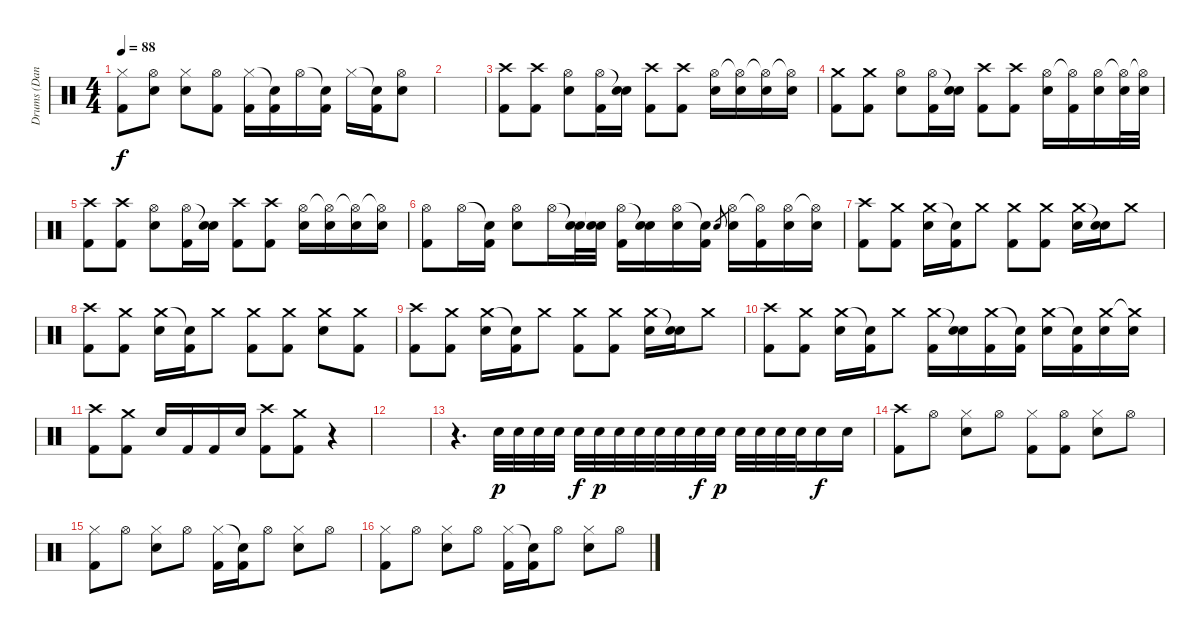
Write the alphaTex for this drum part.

\track ("Drums (Daniel)" "Drums (Dan") {instrument percussion}
\staff {score}
\articulation defaults
\ts (4 4)
\tempo 88
\clef neutral
\ks c
("Hi-Hat (closed)" "Kick (hit) 2").8{dy f} ("Hi-Hat (open)" "Electric Snare (hit)").8 ("Hi-Hat (closed)" "Electric Snare (hit)").8 ("Hi-Hat (open)" "Kick (hit) 2").8 ("Hi-Hat (closed)" "Kick (hit) 2").16 ("Snare (hit)"{t} "Kick (hit) 2").16 "Hi-Hat (open)".16 ("Snare (hit)"{t} "Kick (hit) 2").16 "Hi-Hat (closed)".16 ("Snare (hit)"{t} "Kick (hit) 2").16 ("Hi-Hat (open)" "Electric Snare (hit)").8 |
|
("Crash high (hit)" "Kick (hit) 2").8 ("Crash high (hit)" "Kick (hit) 2").8 ("Hi-Hat (open)" "Electric Snare (hit)").8 ("Hi-Hat (open)" "Kick (hit) 2").16 ("Snare (hit)"{t} "Electric Snare (hit)").16 ("Crash high (hit)" "Kick (hit) 2").8 ("Crash high (hit)" "Kick (hit) 2").8 ("Hi-Hat (open)" "Electric Snare (hit)").16 ("Hi-Hat (open)"{t} "Electric Snare (hit)").16 ("Hi-Hat (open)"{t} "Electric Snare (hit)").16 ("Hi-Hat (open)"{t} "Electric Snare (hit)").16 |
("Crash medium (hit)" "Kick (hit) 2").8 ("Crash medium (hit)" "Kick (hit) 2").8 ("Hi-Hat (open)" "Electric Snare (hit)").8 ("Hi-Hat (open)" "Kick (hit) 2").16 ("Snare (hit)"{t} "Electric Snare (hit)").16 ("Crash high (hit)" "Kick (hit) 2").8 ("Crash high (hit)" "Kick (hit) 2").8 ("Hi-Hat (open)" "Electric Snare (hit)").16 ("Hi-Hat (open)"{t} "Kick (hit) 2").16 ("Hi-Hat (open)" "Electric Snare (hit)").16 ("Hi-Hat (open)"{t} "Electric Snare (hit)").32 ("Hi-Hat (open)"{t} "Electric Snare (hit)").32 |
("Crash high (hit)" "Kick (hit) 2").8 ("Crash high (hit)" "Kick (hit) 2").8 ("Hi-Hat (open)" "Electric Snare (hit)").8 ("Hi-Hat (open)" "Kick (hit) 2").16 ("Snare (hit)"{t} "Electric Snare (hit)").16 ("Crash high (hit)" "Kick (hit) 2").8 ("Crash high (hit)" "Kick (hit) 2").8 ("Hi-Hat (open)" "Electric Snare (hit)").16 ("Hi-Hat (open)"{t} "Electric Snare (hit)").16 ("Hi-Hat (open)"{t} "Electric Snare (hit)").16 ("Hi-Hat (open)"{t} "Electric Snare (hit)").16 |
("Hi-Hat (open)" "Kick (hit) 2").8 "Hi-Hat (open)".16 ("Snare (hit)"{t} "Kick (hit) 2").16 ("Hi-Hat (open)" "Electric Snare (hit)").8 "Hi-Hat (open)".16 ("Snare (hit)"{t} "Electric Snare (hit)").32 ("Snare (hit)"{t} "Electric Snare (hit)").32 ("Hi-Hat (open)" "Kick (hit) 2").16 ("Snare (hit)"{t} "Electric Snare (hit)").16 ("Hi-Hat (open)" "Electric Snare (hit)").16 ("Snare (hit)"{t} "Kick (hit) 2").16 "Electric Snare (hit)".8{gr} ("Hi-Hat (open)" "Electric Snare (hit)").16 ("Hi-Hat (open)"{t} "Kick (hit) 2").16 ("Hi-Hat (open)" "Electric Snare (hit)").16 ("Hi-Hat (open)"{t} "Electric Snare (hit)").16 |
("Crash high (hit)" "Kick (hit) 2").8 ("Crash medium (hit)" "Kick (hit) 2").8 ("Crash medium (hit)" "Electric Snare (hit)").16 ("Snare (hit)"{t} "Kick (hit) 2").16 "Crash medium (hit)".8 ("Crash medium (hit)" "Kick (hit) 2").8 ("Crash medium (hit)" "Kick (hit) 2").8 ("Crash medium (hit)" "Electric Snare (hit)").16 ("Snare (hit)"{t} "Electric Snare (hit)").16 "Crash medium (hit)".8 |
("Crash high (hit)" "Kick (hit) 2").8 ("Crash medium (hit)" "Kick (hit) 2").8 ("Crash medium (hit)" "Electric Snare (hit)").16 ("Snare (hit)"{t} "Kick (hit) 2").16 "Crash medium (hit)".8 ("Crash medium (hit)" "Kick (hit) 2").8 ("Crash medium (hit)" "Kick (hit) 2").8 ("Crash medium (hit)" "Electric Snare (hit)").8 ("Crash medium (hit)" "Kick (hit) 2").8 |
("Crash high (hit)" "Kick (hit) 2").8 ("Crash medium (hit)" "Kick (hit) 2").8 ("Crash medium (hit)" "Electric Snare (hit)").16 ("Snare (hit)"{t} "Kick (hit) 2").16 "Crash medium (hit)".8 ("Crash medium (hit)" "Kick (hit) 2").8 ("Crash medium (hit)" "Kick (hit) 2").8 ("Crash medium (hit)" "Electric Snare (hit)").16 ("Snare (hit)"{t} "Electric Snare (hit)").16 "Crash medium (hit)".8 |
("Crash high (hit)" "Kick (hit) 2").8 ("Crash medium (hit)" "Kick (hit) 2").8 ("Crash medium (hit)" "Electric Snare (hit)").16 ("Snare (hit)"{t} "Kick (hit) 2").16 "Crash medium (hit)".8 ("Crash medium (hit)" "Kick (hit) 2").16 ("Snare (hit)"{t} "Electric Snare (hit)").16 ("Crash medium (hit)" "Kick (hit) 2").16 ("Snare (hit)"{t} "Kick (hit) 2").16 ("Crash medium (hit)" "Electric Snare (hit)").16 ("Snare (hit)"{t} "Kick (hit) 2").16 ("Crash medium (hit)" "Electric Snare (hit)").16 ("Crash medium (hit)"{t} "Electric Snare (hit)").16 |
("Crash high (hit)" "Kick (hit) 2").8 ("Crash medium (hit)" "Kick (hit) 2").8 "Electric Snare (hit)".16 "Kick (hit) 2".16 "Kick (hit) 2".16 "Electric Snare (hit)".16 ("Crash high (hit)" "Kick (hit) 2").8 ("Crash medium (hit)" "Kick (hit) 2").8 r.4 |
|
r.4{d} "Electric Snare (hit)".32{dy p} "Electric Snare (hit)".32 "Electric Snare (hit)".32 "Electric Snare (hit)".32 "Electric Snare (hit)".32{dy f} "Electric Snare (hit)".32{dy p} "Electric Snare (hit)".32 "Electric Snare (hit)".32 "Electric Snare (hit)".32 "Electric Snare (hit)".32 "Electric Snare (hit)".32{dy f} "Electric Snare (hit)".32{dy p} "Electric Snare (hit)".32 "Electric Snare (hit)".32 "Electric Snare (hit)".32 "Electric Snare (hit)".32 "Electric Snare (hit)".16{dy f} "Electric Snare (hit)".16 |
("Crash high (hit)" "Kick (hit) 2").8 "Hi-Hat (open)".8 ("Hi-Hat (closed)" "Electric Snare (hit)").8 "Hi-Hat (open)".8 ("Hi-Hat (closed)" "Kick (hit) 2").8 ("Hi-Hat (open)" "Kick (hit) 2").8 ("Hi-Hat (closed)" "Electric Snare (hit)").8 "Hi-Hat (open)".8 |
("Hi-Hat (closed)" "Kick (hit) 2").8 "Hi-Hat (open)".8 ("Hi-Hat (closed)" "Electric Snare (hit)").8 "Hi-Hat (open)".8 ("Hi-Hat (closed)" "Kick (hit) 2").16 ("Snare (hit)"{t} "Kick (hit) 2").16 "Hi-Hat (open)".8 ("Hi-Hat (closed)" "Electric Snare (hit)").8 "Hi-Hat (open)".8 |
("Hi-Hat (closed)" "Kick (hit) 2").8 "Hi-Hat (open)".8 ("Hi-Hat (closed)" "Electric Snare (hit)").8 "Hi-Hat (open)".8 ("Hi-Hat (closed)" "Kick (hit) 2").16 ("Snare (hit)"{t} "Kick (hit) 2").16 "Hi-Hat (open)".8 ("Hi-Hat (closed)" "Electric Snare (hit)").8 "Hi-Hat (open)".8
